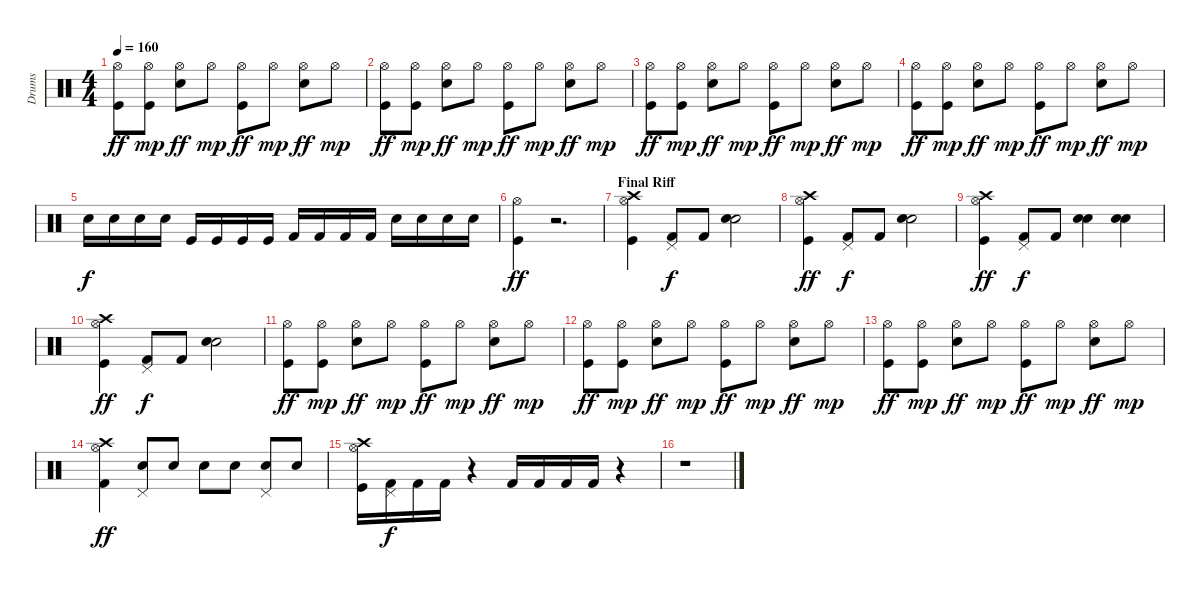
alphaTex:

\track ("Drums" "Drums") {instrument percussion}
\staff {score}
\articulation defaults
\ts (4 4)
\tempo 160
\clef neutral
\ks c
("Kick (hit)" "Hi-Hat (open)").8{dy ff} ("Kick (hit)" "Hi-Hat (open)").8{dy mp} ("Electric Snare (hit)" "Hi-Hat (open)").8{dy ff} "Hi-Hat (open)".8{dy mp} ("Kick (hit)" "Hi-Hat (open)").8{dy ff} "Hi-Hat (open)".8{dy mp} ("Electric Snare (hit)" "Hi-Hat (open)").8{dy ff} "Hi-Hat (open)".8{dy mp} |
("Kick (hit)" "Hi-Hat (open)").8{dy ff} ("Kick (hit)" "Hi-Hat (open)").8{dy mp} ("Electric Snare (hit)" "Hi-Hat (open)").8{dy ff} "Hi-Hat (open)".8{dy mp} ("Kick (hit)" "Hi-Hat (open)").8{dy ff} "Hi-Hat (open)".8{dy mp} ("Electric Snare (hit)" "Hi-Hat (open)").8{dy ff} "Hi-Hat (open)".8{dy mp} |
("Kick (hit)" "Hi-Hat (open)").8{dy ff} ("Kick (hit)" "Hi-Hat (open)").8{dy mp} ("Electric Snare (hit)" "Hi-Hat (open)").8{dy ff} "Hi-Hat (open)".8{dy mp} ("Kick (hit)" "Hi-Hat (open)").8{dy ff} "Hi-Hat (open)".8{dy mp} ("Electric Snare (hit)" "Hi-Hat (open)").8{dy ff} "Hi-Hat (open)".8{dy mp} |
("Kick (hit)" "Hi-Hat (open)").8{dy ff} ("Kick (hit)" "Hi-Hat (open)").8{dy mp} ("Electric Snare (hit)" "Hi-Hat (open)").8{dy ff} "Hi-Hat (open)".8{dy mp} ("Kick (hit)" "Hi-Hat (open)").8{dy ff} "Hi-Hat (open)".8{dy mp} ("Electric Snare (hit)" "Hi-Hat (open)").8{dy ff} "Hi-Hat (open)".8{dy mp} |
"Electric Snare (hit)".16{dy f} "Electric Snare (hit)".16 "Electric Snare (hit)".16 "Electric Snare (hit)".16 "Kick (hit)".16 "Kick (hit)".16 "Kick (hit)".16 "Kick (hit)".16 "Kick (hit) 2".16 "Kick (hit) 2".16 "Kick (hit) 2".16 "Kick (hit) 2".16 "Electric Snare (hit)".16 "Electric Snare (hit)".16 "Electric Snare (hit)".16 "Electric Snare (hit)".16 |
("Kick (hit)" "Hi-Hat (open)").4{dy ff} r.2{d} |
\section ("" "Final Riff")
("Kick (hit)" "Hi-Hat (open)" "Crash high (hit)").4 ("Kick (hit) 2" "Pedal Hi-Hat (hit)").8{dy f} "Kick (hit) 2".8 ("Snare (hit) 2" "Metronome (bell)").2 |
("Kick (hit)" "Hi-Hat (open)" "Crash high (hit)").4{dy ff} ("Kick (hit) 2" "Pedal Hi-Hat (hit)").8{dy f} "Kick (hit) 2".8 ("Snare (hit) 2" "Metronome (bell)").2 |
("Kick (hit)" "Hi-Hat (open)" "Crash high (hit)").4{dy ff} ("Kick (hit) 2" "Pedal Hi-Hat (hit)").8{dy f} "Kick (hit) 2".8 ("Snare (hit) 2" "Metronome (bell)").4 ("Snare (hit) 2" "Metronome (bell)").4 |
("Kick (hit)" "Hi-Hat (open)" "Crash high (hit)").4{dy ff} ("Kick (hit) 2" "Pedal Hi-Hat (hit)").8{dy f} "Kick (hit) 2".8 ("Snare (hit) 2" "Metronome (bell)").2 |
("Kick (hit)" "Hi-Hat (open)").8{dy ff} ("Kick (hit)" "Hi-Hat (open)").8{dy mp} ("Electric Snare (hit)" "Hi-Hat (open)").8{dy ff} "Hi-Hat (open)".8{dy mp} ("Kick (hit)" "Hi-Hat (open)").8{dy ff} "Hi-Hat (open)".8{dy mp} ("Electric Snare (hit)" "Hi-Hat (open)").8{dy ff} "Hi-Hat (open)".8{dy mp} |
("Kick (hit)" "Hi-Hat (open)").8{dy ff} ("Kick (hit)" "Hi-Hat (open)").8{dy mp} ("Electric Snare (hit)" "Hi-Hat (open)").8{dy ff} "Hi-Hat (open)".8{dy mp} ("Kick (hit)" "Hi-Hat (open)").8{dy ff} "Hi-Hat (open)".8{dy mp} ("Electric Snare (hit)" "Hi-Hat (open)").8{dy ff} "Hi-Hat (open)".8{dy mp} |
("Kick (hit)" "Hi-Hat (open)").8{dy ff} ("Kick (hit)" "Hi-Hat (open)").8{dy mp} ("Electric Snare (hit)" "Hi-Hat (open)").8{dy ff} "Hi-Hat (open)".8{dy mp} ("Kick (hit)" "Hi-Hat (open)").8{dy ff} "Hi-Hat (open)".8{dy mp} ("Electric Snare (hit)" "Hi-Hat (open)").8{dy ff} "Hi-Hat (open)".8{dy mp} |
("Kick (hit) 2" "Hi-Hat (open)" "Crash high (hit)").4{dy ff} ("Electric Snare (hit)" "Pedal Hi-Hat (hit)").8 "Electric Snare (hit)".8 "Electric Snare (hit)".8 "Electric Snare (hit)".8 ("Electric Snare (hit)" "Pedal Hi-Hat (hit)").8 "Electric Snare (hit)".8 |
("Kick (hit)" "Hi-Hat (open)" "Crash high (hit)").16 ("Kick (hit) 2" "Pedal Hi-Hat (hit)").16{dy f} "Kick (hit) 2".16 "Kick (hit) 2".16 r.4 "Kick (hit) 2".16 "Kick (hit) 2".16 "Kick (hit) 2".16 "Kick (hit) 2".16 r.4 |
r.1
